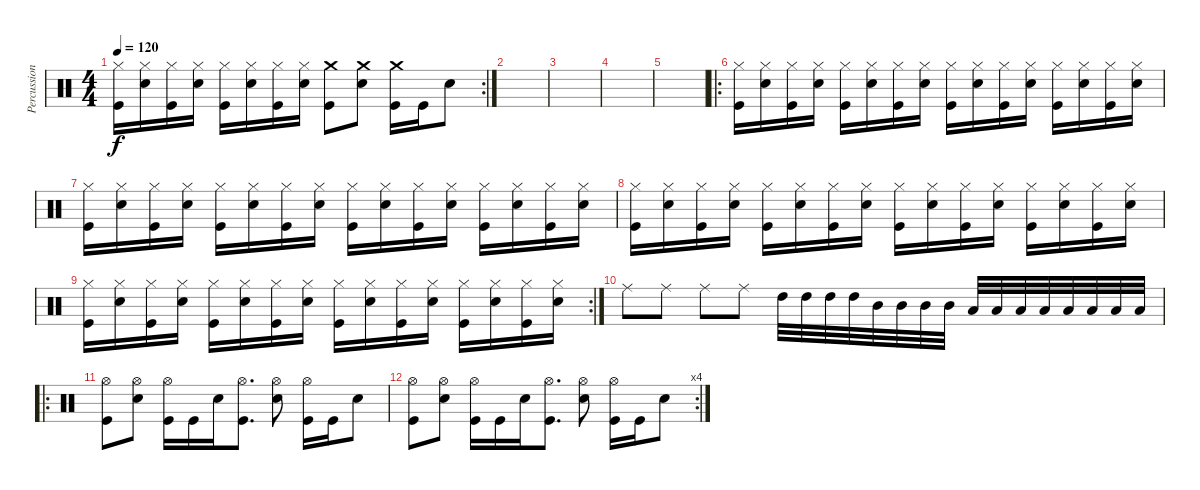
\track ("Percussion" "Percussion") {instrument percussion}
\staff {score}
\articulation defaults
\rc 2
\ts (4 4)
\tempo 120
\clef neutral
\ks c
("Hi-Hat (closed)" "Kick (hit)").16{dy f} ("Hi-Hat (closed)" "Snare (hit) 2").16 ("Hi-Hat (closed)" "Kick (hit)").16 ("Hi-Hat (closed)" "Snare (hit) 2").16 ("Hi-Hat (closed)" "Kick (hit)").16 ("Hi-Hat (closed)" "Snare (hit) 2").16 ("Hi-Hat (closed)" "Kick (hit)").16 ("Hi-Hat (closed)" "Snare (hit) 2").16 ("Crash medium (hit)" "Kick (hit)").8 ("Crash medium (hit)" "Snare (hit) 2").8 ("Crash medium (hit)" "Kick (hit)").16 "Kick (hit)".16 "Snare (hit) 2".8 |
|
|
|
|
\ro
("Hi-Hat (closed)" "Kick (hit)").16 ("Hi-Hat (closed)" "Snare (hit) 2").16 ("Hi-Hat (closed)" "Kick (hit)").16 ("Hi-Hat (closed)" "Snare (hit) 2").16 ("Hi-Hat (closed)" "Kick (hit)").16 ("Hi-Hat (closed)" "Snare (hit) 2").16 ("Hi-Hat (closed)" "Kick (hit)").16 ("Hi-Hat (closed)" "Snare (hit) 2").16 ("Hi-Hat (closed)" "Kick (hit)").16 ("Hi-Hat (closed)" "Snare (hit) 2").16 ("Hi-Hat (closed)" "Kick (hit)").16 ("Hi-Hat (closed)" "Snare (hit) 2").16 ("Hi-Hat (closed)" "Kick (hit)").16 ("Hi-Hat (closed)" "Snare (hit) 2").16 ("Hi-Hat (closed)" "Kick (hit)").16 ("Hi-Hat (closed)" "Snare (hit) 2").16 |
("Hi-Hat (closed)" "Kick (hit)").16 ("Hi-Hat (closed)" "Snare (hit) 2").16 ("Hi-Hat (closed)" "Kick (hit)").16 ("Hi-Hat (closed)" "Snare (hit) 2").16 ("Hi-Hat (closed)" "Kick (hit)").16 ("Hi-Hat (closed)" "Snare (hit) 2").16 ("Hi-Hat (closed)" "Kick (hit)").16 ("Hi-Hat (closed)" "Snare (hit) 2").16 ("Hi-Hat (closed)" "Kick (hit)").16 ("Hi-Hat (closed)" "Snare (hit) 2").16 ("Hi-Hat (closed)" "Kick (hit)").16 ("Hi-Hat (closed)" "Snare (hit) 2").16 ("Hi-Hat (closed)" "Kick (hit)").16 ("Hi-Hat (closed)" "Snare (hit) 2").16 ("Hi-Hat (closed)" "Kick (hit)").16 ("Hi-Hat (closed)" "Snare (hit) 2").16 |
("Hi-Hat (closed)" "Kick (hit)").16 ("Hi-Hat (closed)" "Snare (hit) 2").16 ("Hi-Hat (closed)" "Kick (hit)").16 ("Hi-Hat (closed)" "Snare (hit) 2").16 ("Hi-Hat (closed)" "Kick (hit)").16 ("Hi-Hat (closed)" "Snare (hit) 2").16 ("Hi-Hat (closed)" "Kick (hit)").16 ("Hi-Hat (closed)" "Snare (hit) 2").16 ("Hi-Hat (closed)" "Kick (hit)").16 ("Hi-Hat (closed)" "Snare (hit) 2").16 ("Hi-Hat (closed)" "Kick (hit)").16 ("Hi-Hat (closed)" "Snare (hit) 2").16 ("Hi-Hat (closed)" "Kick (hit)").16 ("Hi-Hat (closed)" "Snare (hit) 2").16 ("Hi-Hat (closed)" "Kick (hit)").16 ("Hi-Hat (closed)" "Snare (hit) 2").16 |
\rc 2
("Hi-Hat (closed)" "Kick (hit)").16 ("Hi-Hat (closed)" "Snare (hit) 2").16 ("Hi-Hat (closed)" "Kick (hit)").16 ("Hi-Hat (closed)" "Snare (hit) 2").16 ("Hi-Hat (closed)" "Kick (hit)").16 ("Hi-Hat (closed)" "Snare (hit) 2").16 ("Hi-Hat (closed)" "Kick (hit)").16 ("Hi-Hat (closed)" "Snare (hit) 2").16 ("Hi-Hat (closed)" "Kick (hit)").16 ("Hi-Hat (closed)" "Snare (hit) 2").16 ("Hi-Hat (closed)" "Kick (hit)").16 ("Hi-Hat (closed)" "Snare (hit) 2").16 ("Hi-Hat (closed)" "Kick (hit)").16 ("Hi-Hat (closed)" "Snare (hit) 2").16 ("Hi-Hat (closed)" "Kick (hit)").16 ("Hi-Hat (closed)" "Snare (hit) 2").16 |
"Ride (middle)".8 "Ride (middle)".8 "Ride (middle)".8 "Ride (middle)".8 "High Tom (hit)".32 "High Tom (hit)".32 "High Tom (hit)".32 "High Tom (hit)".32 "Mid Tom (hit)".32 "Mid Tom (hit)".32 "Mid Tom (hit)".32 "Mid Tom (hit)".32 "Low Tom (hit)".32 "Low Tom (hit)".32 "Low Tom (hit)".32 "Low Tom (hit)".32 "Low Floor Tom (hit)".32 "Low Floor Tom (hit)".32 "Low Floor Tom (hit)".32 "Low Floor Tom (hit)".32 |
\ro
("Hi-Hat (open)" "Kick (hit)").8 ("Hi-Hat (open)" "Snare (hit) 2").8 ("Hi-Hat (open)" "Kick (hit)").16 "Kick (hit)".16 "Snare (hit) 2".16 ("Hi-Hat (open)" "Kick (hit)").8{d} ("Hi-Hat (open)" "Snare (hit) 2").8 ("Hi-Hat (open)" "Kick (hit)").16 "Kick (hit)".16 "Snare (hit) 2".8 |
\rc 4
("Hi-Hat (open)" "Kick (hit)").8 ("Hi-Hat (open)" "Snare (hit) 2").8 ("Hi-Hat (open)" "Kick (hit)").16 "Kick (hit)".16 "Snare (hit) 2".16 ("Hi-Hat (open)" "Kick (hit)").8{d} ("Hi-Hat (open)" "Snare (hit) 2").8 ("Hi-Hat (open)" "Kick (hit)").16 "Kick (hit)".16 "Snare (hit) 2".8
